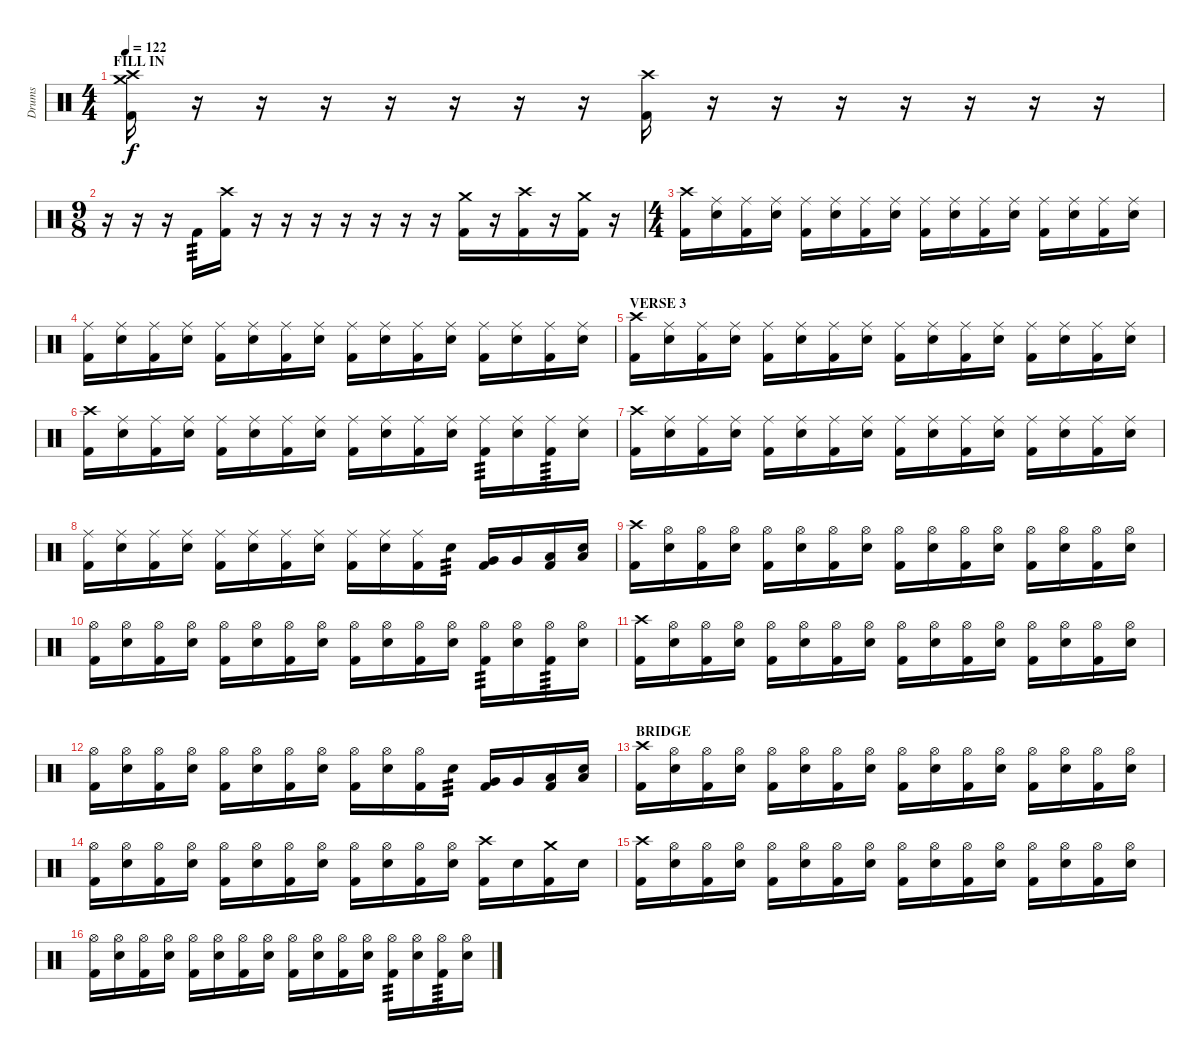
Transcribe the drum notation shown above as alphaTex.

\track ("Drums" "Drums") {instrument percussion}
\staff {score}
\articulation defaults
\ts (4 4)
\section ("" "FILL IN")
\tempo 122
\clef neutral
\ks c
("Crash high (hit)" "Crash medium (hit)" "Kick (hit) 2").16{dy f} r.16 r.16 r.16 r.16 r.16 r.16 r.16 ("Crash high (hit)" "Kick (hit) 2").16 r.16 r.16 r.16 r.16 r.16 r.16 r.16 |
\ts (9 8)
r.16 r.16 r.16 "Kick (hit) 2".16{tp 3} ("Crash high (hit)" "Kick (hit) 2").16 r.16 r.16 r.16 r.16 r.16 r.16 r.16 ("Crash medium (hit)" "Kick (hit) 2").16 r.16 ("Crash high (hit)" "Kick (hit) 2").16 r.16 ("Crash medium (hit)" "Kick (hit) 2").16 r.16 |
\ts (4 4)
("Crash high (hit)" "Kick (hit) 2").16 ("Ride (middle)" "Electric Snare (hit)").16 ("Ride (middle)" "Kick (hit) 2").16 ("Ride (middle)" "Electric Snare (hit)").16 ("Ride (middle)" "Kick (hit) 2").16 ("Ride (middle)" "Electric Snare (hit)").16 ("Ride (middle)" "Kick (hit) 2").16 ("Ride (middle)" "Electric Snare (hit)").16 ("Ride (middle)" "Kick (hit) 2").16 ("Ride (middle)" "Electric Snare (hit)").16 ("Ride (middle)" "Kick (hit) 2").16 ("Ride (middle)" "Electric Snare (hit)").16 ("Ride (middle)" "Kick (hit) 2").16 ("Ride (middle)" "Electric Snare (hit)").16 ("Ride (middle)" "Kick (hit) 2").16 ("Ride (middle)" "Electric Snare (hit)").16 |
("Ride (middle)" "Kick (hit) 2").16 ("Ride (middle)" "Electric Snare (hit)").16 ("Ride (middle)" "Kick (hit) 2").16 ("Ride (middle)" "Electric Snare (hit)").16 ("Ride (middle)" "Kick (hit) 2").16 ("Ride (middle)" "Electric Snare (hit)").16 ("Ride (middle)" "Kick (hit) 2").16 ("Ride (middle)" "Electric Snare (hit)").16 ("Ride (middle)" "Kick (hit) 2").16 ("Ride (middle)" "Electric Snare (hit)").16 ("Ride (middle)" "Kick (hit) 2").16 ("Ride (middle)" "Electric Snare (hit)").16 ("Ride (middle)" "Kick (hit) 2").16 ("Ride (middle)" "Electric Snare (hit)").16 ("Ride (middle)" "Kick (hit) 2").16 ("Ride (middle)" "Electric Snare (hit)").16 |
\section ("" "VERSE 3")
("Crash high (hit)" "Kick (hit) 2").16 ("Ride (middle)" "Electric Snare (hit)").16 ("Ride (middle)" "Kick (hit) 2").16 ("Ride (middle)" "Electric Snare (hit)").16 ("Ride (middle)" "Kick (hit) 2").16 ("Ride (middle)" "Electric Snare (hit)").16 ("Ride (middle)" "Kick (hit) 2").16 ("Ride (middle)" "Electric Snare (hit)").16 ("Ride (middle)" "Kick (hit) 2").16 ("Ride (middle)" "Electric Snare (hit)").16 ("Ride (middle)" "Kick (hit) 2").16 ("Ride (middle)" "Electric Snare (hit)").16 ("Ride (middle)" "Kick (hit) 2").16 ("Ride (middle)" "Electric Snare (hit)").16 ("Ride (middle)" "Kick (hit) 2").16 ("Ride (middle)" "Electric Snare (hit)").16 |
("Crash high (hit)" "Kick (hit) 2").16 ("Ride (middle)" "Electric Snare (hit)").16 ("Ride (middle)" "Kick (hit) 2").16 ("Ride (middle)" "Electric Snare (hit)").16 ("Ride (middle)" "Kick (hit) 2").16 ("Ride (middle)" "Electric Snare (hit)").16 ("Ride (middle)" "Kick (hit) 2").16 ("Ride (middle)" "Electric Snare (hit)").16 ("Ride (middle)" "Kick (hit) 2").16 ("Ride (middle)" "Electric Snare (hit)").16 ("Ride (middle)" "Kick (hit) 2").16 ("Ride (middle)" "Electric Snare (hit)").16 ("Ride (middle)" "Kick (hit) 2").16{tp 3} ("Ride (middle)" "Electric Snare (hit)").16 ("Ride (middle)" "Kick (hit) 2").16{tp 3} ("Ride (middle)" "Electric Snare (hit)").16 |
("Crash high (hit)" "Kick (hit) 2").16 ("Ride (middle)" "Electric Snare (hit)").16 ("Ride (middle)" "Kick (hit) 2").16 ("Ride (middle)" "Electric Snare (hit)").16 ("Ride (middle)" "Kick (hit) 2").16 ("Ride (middle)" "Electric Snare (hit)").16 ("Ride (middle)" "Kick (hit) 2").16 ("Ride (middle)" "Electric Snare (hit)").16 ("Ride (middle)" "Kick (hit) 2").16 ("Ride (middle)" "Electric Snare (hit)").16 ("Ride (middle)" "Kick (hit) 2").16 ("Ride (middle)" "Electric Snare (hit)").16 ("Ride (middle)" "Kick (hit) 2").16 ("Ride (middle)" "Electric Snare (hit)").16 ("Ride (middle)" "Kick (hit) 2").16 ("Ride (middle)" "Electric Snare (hit)").16 |
("Ride (middle)" "Kick (hit) 2").16 ("Ride (middle)" "Electric Snare (hit)").16 ("Ride (middle)" "Kick (hit) 2").16 ("Ride (middle)" "Electric Snare (hit)").16 ("Ride (middle)" "Kick (hit) 2").16 ("Ride (middle)" "Electric Snare (hit)").16 ("Ride (middle)" "Kick (hit) 2").16 ("Ride (middle)" "Electric Snare (hit)").16 ("Ride (middle)" "Kick (hit) 2").16 ("Ride (middle)" "Electric Snare (hit)").16 ("Ride (middle)" "Kick (hit) 2").16 "Electric Snare (hit)".16{tp 3} ("Very Low Tom (hit)" "Kick (hit) 2").16 "Very Low Tom (hit)".16 ("Low Floor Tom (hit)" "Kick (hit) 2").16 ("Low Floor Tom (hit)" "Electric Snare (hit)").16 |
("Crash high (hit)" "Kick (hit) 2").16 ("Hi-Hat (open)" "Electric Snare (hit)").16 ("Hi-Hat (open)" "Kick (hit) 2").16 ("Hi-Hat (open)" "Electric Snare (hit)").16 ("Hi-Hat (open)" "Kick (hit) 2").16 ("Hi-Hat (open)" "Electric Snare (hit)").16 ("Hi-Hat (open)" "Kick (hit) 2").16 ("Hi-Hat (open)" "Electric Snare (hit)").16 ("Hi-Hat (open)" "Kick (hit) 2").16 ("Hi-Hat (open)" "Electric Snare (hit)").16 ("Hi-Hat (open)" "Kick (hit) 2").16 ("Hi-Hat (open)" "Electric Snare (hit)").16 ("Hi-Hat (open)" "Kick (hit) 2").16 ("Hi-Hat (open)" "Electric Snare (hit)").16 ("Hi-Hat (open)" "Kick (hit) 2").16 ("Hi-Hat (open)" "Electric Snare (hit)").16 |
("Hi-Hat (open)" "Kick (hit) 2").16 ("Hi-Hat (open)" "Electric Snare (hit)").16 ("Hi-Hat (open)" "Kick (hit) 2").16 ("Hi-Hat (open)" "Electric Snare (hit)").16 ("Hi-Hat (open)" "Kick (hit) 2").16 ("Hi-Hat (open)" "Electric Snare (hit)").16 ("Hi-Hat (open)" "Kick (hit) 2").16 ("Hi-Hat (open)" "Electric Snare (hit)").16 ("Hi-Hat (open)" "Kick (hit) 2").16 ("Hi-Hat (open)" "Electric Snare (hit)").16 ("Hi-Hat (open)" "Kick (hit) 2").16 ("Hi-Hat (open)" "Electric Snare (hit)").16 ("Hi-Hat (open)" "Kick (hit) 2").16{tp 3} ("Hi-Hat (open)" "Electric Snare (hit)").16 ("Hi-Hat (open)" "Kick (hit) 2").16{tp 3} ("Hi-Hat (open)" "Electric Snare (hit)").16 |
("Crash high (hit)" "Kick (hit) 2").16 ("Hi-Hat (open)" "Electric Snare (hit)").16 ("Hi-Hat (open)" "Kick (hit) 2").16 ("Hi-Hat (open)" "Electric Snare (hit)").16 ("Hi-Hat (open)" "Kick (hit) 2").16 ("Hi-Hat (open)" "Electric Snare (hit)").16 ("Hi-Hat (open)" "Kick (hit) 2").16 ("Hi-Hat (open)" "Electric Snare (hit)").16 ("Hi-Hat (open)" "Kick (hit) 2").16 ("Hi-Hat (open)" "Electric Snare (hit)").16 ("Hi-Hat (open)" "Kick (hit) 2").16 ("Hi-Hat (open)" "Electric Snare (hit)").16 ("Hi-Hat (open)" "Kick (hit) 2").16 ("Hi-Hat (open)" "Electric Snare (hit)").16 ("Hi-Hat (open)" "Kick (hit) 2").16 ("Hi-Hat (open)" "Electric Snare (hit)").16 |
("Hi-Hat (open)" "Kick (hit) 2").16 ("Hi-Hat (open)" "Electric Snare (hit)").16 ("Hi-Hat (open)" "Kick (hit) 2").16 ("Hi-Hat (open)" "Electric Snare (hit)").16 ("Hi-Hat (open)" "Kick (hit) 2").16 ("Hi-Hat (open)" "Electric Snare (hit)").16 ("Hi-Hat (open)" "Kick (hit) 2").16 ("Hi-Hat (open)" "Electric Snare (hit)").16 ("Hi-Hat (open)" "Kick (hit) 2").16 ("Hi-Hat (open)" "Electric Snare (hit)").16 ("Hi-Hat (open)" "Kick (hit) 2").16 "Electric Snare (hit)".16{tp 3} ("Very Low Tom (hit)" "Kick (hit) 2").16 "Very Low Tom (hit)".16 ("Low Floor Tom (hit)" "Kick (hit) 2").16 ("Low Floor Tom (hit)" "Electric Snare (hit)").16 |
\section ("" "BRIDGE")
("Crash high (hit)" "Kick (hit) 2").16 ("Hi-Hat (open)" "Electric Snare (hit)").16 ("Hi-Hat (open)" "Kick (hit) 2").16 ("Hi-Hat (open)" "Electric Snare (hit)").16 ("Hi-Hat (open)" "Kick (hit) 2").16 ("Hi-Hat (open)" "Electric Snare (hit)").16 ("Hi-Hat (open)" "Kick (hit) 2").16 ("Hi-Hat (open)" "Electric Snare (hit)").16 ("Hi-Hat (open)" "Kick (hit) 2").16 ("Hi-Hat (open)" "Electric Snare (hit)").16 ("Hi-Hat (open)" "Kick (hit) 2").16 ("Hi-Hat (open)" "Electric Snare (hit)").16 ("Hi-Hat (open)" "Kick (hit) 2").16 ("Hi-Hat (open)" "Electric Snare (hit)").16 ("Hi-Hat (open)" "Kick (hit) 2").16 ("Hi-Hat (open)" "Electric Snare (hit)").16 |
("Hi-Hat (open)" "Kick (hit) 2").16 ("Hi-Hat (open)" "Electric Snare (hit)").16 ("Hi-Hat (open)" "Kick (hit) 2").16 ("Hi-Hat (open)" "Electric Snare (hit)").16 ("Hi-Hat (open)" "Kick (hit) 2").16 ("Hi-Hat (open)" "Electric Snare (hit)").16 ("Hi-Hat (open)" "Kick (hit) 2").16 ("Hi-Hat (open)" "Electric Snare (hit)").16 ("Hi-Hat (open)" "Kick (hit) 2").16 ("Hi-Hat (open)" "Electric Snare (hit)").16 ("Hi-Hat (open)" "Kick (hit) 2").16 ("Hi-Hat (open)" "Electric Snare (hit)").16 ("Crash high (hit)" "Kick (hit) 2").16 "Electric Snare (hit)".16 ("Crash medium (hit)" "Kick (hit) 2").16 "Electric Snare (hit)".16 |
("Crash high (hit)" "Kick (hit) 2").16 ("Hi-Hat (open)" "Electric Snare (hit)").16 ("Hi-Hat (open)" "Kick (hit) 2").16 ("Hi-Hat (open)" "Electric Snare (hit)").16 ("Hi-Hat (open)" "Kick (hit) 2").16 ("Hi-Hat (open)" "Electric Snare (hit)").16 ("Hi-Hat (open)" "Kick (hit) 2").16 ("Hi-Hat (open)" "Electric Snare (hit)").16 ("Hi-Hat (open)" "Kick (hit) 2").16 ("Hi-Hat (open)" "Electric Snare (hit)").16 ("Hi-Hat (open)" "Kick (hit) 2").16 ("Hi-Hat (open)" "Electric Snare (hit)").16 ("Hi-Hat (open)" "Kick (hit) 2").16 ("Hi-Hat (open)" "Electric Snare (hit)").16 ("Hi-Hat (open)" "Kick (hit) 2").16 ("Hi-Hat (open)" "Electric Snare (hit)").16 |
("Hi-Hat (open)" "Kick (hit) 2").16 ("Hi-Hat (open)" "Electric Snare (hit)").16 ("Hi-Hat (open)" "Kick (hit) 2").16 ("Hi-Hat (open)" "Electric Snare (hit)").16 ("Hi-Hat (open)" "Kick (hit) 2").16 ("Hi-Hat (open)" "Electric Snare (hit)").16 ("Hi-Hat (open)" "Kick (hit) 2").16 ("Hi-Hat (open)" "Electric Snare (hit)").16 ("Hi-Hat (open)" "Kick (hit) 2").16 ("Hi-Hat (open)" "Electric Snare (hit)").16 ("Hi-Hat (open)" "Kick (hit) 2").16 ("Hi-Hat (open)" "Electric Snare (hit)").16 ("Hi-Hat (open)" "Kick (hit) 2").16{tp 3} ("Hi-Hat (open)" "Electric Snare (hit)").16 ("Hi-Hat (open)" "Kick (hit) 2").16{tp 3} ("Hi-Hat (open)" "Electric Snare (hit)").16
